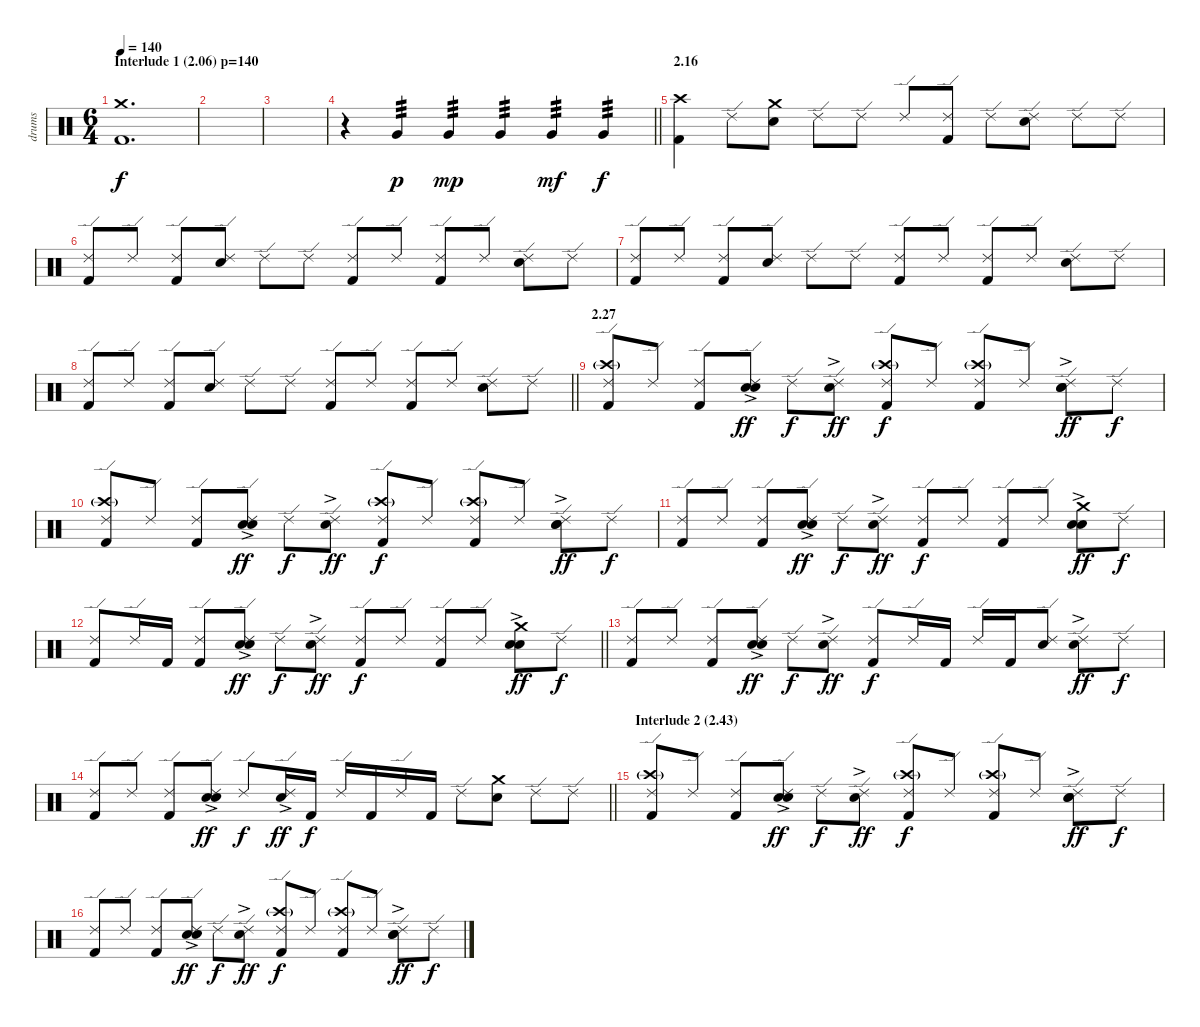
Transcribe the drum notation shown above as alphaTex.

\track ("drums" "drums") {instrument percussion}
\staff {score}
\articulation defaults
\ts (6 4)
\section ("" "Interlude 1 (2.06) p=140")
\tempo 140
\clef neutral
\ks c
("Crash medium (hit)" "Kick (hit) 2").1{d dy f} |
|
|
\barLineRight lightlight
r.4 "Very Low Tom (hit)".4{tp 3 dy p} "Very Low Tom (hit)".4{tp 3 dy mp} "Very Low Tom (hit)".4{tp 3} "Very Low Tom (hit)".4{tp 3 dy mf} "Very Low Tom (hit)".4{tp 3 dy f} |
\section ("" "2.16")
("Crash high (hit)" "Kick (hit) 2").4 "Ride (edge) 2".8 ("Crash medium (hit)" "Electric Snare (hit)").8 "Ride (edge) 2".8 "Ride (edge) 2".8 "Ride (edge) 2".8 ("Ride (edge) 2" "Kick (hit) 2").8 "Ride (edge) 2".8 ("Ride (edge) 2" "Electric Snare (hit)").8 "Ride (edge) 2".8 "Ride (edge) 2".8 |
("Ride (edge) 2" "Kick (hit) 2").8 "Ride (edge) 2".8 ("Ride (edge) 2" "Kick (hit) 2").8 ("Ride (edge) 2" "Electric Snare (hit)").8 "Ride (edge) 2".8 "Ride (edge) 2".8 ("Ride (edge) 2" "Kick (hit) 2").8 "Ride (edge) 2".8 ("Ride (edge) 2" "Kick (hit) 2").8 "Ride (edge) 2".8 ("Ride (edge) 2" "Electric Snare (hit)").8 "Ride (edge) 2".8 |
("Ride (edge) 2" "Kick (hit) 2").8 "Ride (edge) 2".8 ("Ride (edge) 2" "Kick (hit) 2").8 ("Ride (edge) 2" "Electric Snare (hit)").8 "Ride (edge) 2".8 "Ride (edge) 2".8 ("Ride (edge) 2" "Kick (hit) 2").8 "Ride (edge) 2".8 ("Ride (edge) 2" "Kick (hit) 2").8 "Ride (edge) 2".8 ("Ride (edge) 2" "Electric Snare (hit)").8 "Ride (edge) 2".8 |
\barLineRight lightlight
("Ride (edge) 2" "Kick (hit) 2").8 "Ride (edge) 2".8 ("Ride (edge) 2" "Kick (hit) 2").8 ("Ride (edge) 2" "Electric Snare (hit)").8 "Ride (edge) 2".8 "Ride (edge) 2".8 ("Ride (edge) 2" "Kick (hit) 2").8 "Ride (edge) 2".8 ("Ride (edge) 2" "Kick (hit) 2").8 "Ride (edge) 2".8 ("Ride (edge) 2" "Electric Snare (hit)").8 "Ride (edge) 2".8 |
\section ("" "2.27")
("Ride (edge) 2" "Crash high (hit)"{g} "Kick (hit) 2").8 "Ride (edge) 2".8 ("Ride (edge) 2" "Kick (hit) 2").8 ("Ride (edge) 2" "Hand Clap (hit)"{ac} "Electric Snare (hit)").8{dy ff} "Ride (edge) 2".8{dy f} ("Ride (edge) 2" "Hand Clap (hit)"{ac}).8{dy ff} ("Ride (edge) 2" "Crash high (hit)"{g} "Kick (hit) 2").8{dy f} "Ride (edge) 2".8 ("Ride (edge) 2" "Crash high (hit)"{g} "Kick (hit) 2").8 "Ride (edge) 2".8 ("Ride (edge) 2" "Hand Clap (hit)"{ac} "Electric Snare (hit)").8{dy ff} "Ride (edge) 2".8{dy f} |
("Ride (edge) 2" "Crash high (hit)"{g} "Kick (hit) 2").8 "Ride (edge) 2".8 ("Ride (edge) 2" "Kick (hit) 2").8 ("Ride (edge) 2" "Hand Clap (hit)"{ac} "Electric Snare (hit)").8{dy ff} "Ride (edge) 2".8{dy f} ("Ride (edge) 2" "Hand Clap (hit)"{ac}).8{dy ff} ("Ride (edge) 2" "Crash high (hit)"{g} "Kick (hit) 2").8{dy f} "Ride (edge) 2".8 ("Ride (edge) 2" "Crash high (hit)"{g} "Kick (hit) 2").8 "Ride (edge) 2".8 ("Ride (edge) 2" "Hand Clap (hit)"{ac} "Electric Snare (hit)").8{dy ff} "Ride (edge) 2".8{dy f} |
("Ride (edge) 2" "Kick (hit) 2").8 "Ride (edge) 2".8 ("Ride (edge) 2" "Kick (hit) 2").8 ("Ride (edge) 2" "Hand Clap (hit)"{ac} "Electric Snare (hit)").8{dy ff} "Ride (edge) 2".8{dy f} ("Ride (edge) 2" "Hand Clap (hit)"{ac}).8{dy ff} ("Ride (edge) 2" "Kick (hit) 2").8{dy f} "Ride (edge) 2".8 ("Ride (edge) 2" "Kick (hit) 2").8 "Ride (edge) 2".8 ("Hand Clap (hit)"{ac} "Crash medium (hit)" "Electric Snare (hit)").8{dy ff} "Ride (edge) 2".8{dy f} |
\barLineRight lightlight
("Ride (edge) 2" "Kick (hit) 2").8 "Ride (edge) 2".16 "Kick (hit) 2".16 ("Ride (edge) 2" "Kick (hit) 2").8 ("Ride (edge) 2" "Hand Clap (hit)"{ac} "Electric Snare (hit)").8{dy ff} "Ride (edge) 2".8{dy f} ("Ride (edge) 2" "Hand Clap (hit)"{ac}).8{dy ff} ("Ride (edge) 2" "Kick (hit) 2").8{dy f} "Ride (edge) 2".8 ("Ride (edge) 2" "Kick (hit) 2").8 "Ride (edge) 2".8 ("Hand Clap (hit)"{ac} "Crash medium (hit)" "Electric Snare (hit)").8{dy ff} "Ride (edge) 2".8{dy f} |
("Ride (edge) 2" "Kick (hit) 2").8 "Ride (edge) 2".8 ("Ride (edge) 2" "Kick (hit) 2").8 ("Ride (edge) 2" "Hand Clap (hit)"{ac} "Electric Snare (hit)").8{dy ff} "Ride (edge) 2".8{dy f} ("Ride (edge) 2" "Hand Clap (hit)"{ac}).8{dy ff} ("Ride (edge) 2" "Kick (hit) 2").8{dy f} "Ride (edge) 2".16 "Kick (hit) 2".16 "Ride (edge) 2".16 "Kick (hit) 2".16 ("Ride (edge) 2" "Electric Snare (hit)").8 ("Ride (edge) 2" "Hand Clap (hit)"{ac}).8{dy ff} "Ride (edge) 2".8{dy f} |
\barLineRight lightlight
("Ride (edge) 2" "Kick (hit) 2").8 "Ride (edge) 2".8 ("Ride (edge) 2" "Kick (hit) 2").8 ("Ride (edge) 2" "Hand Clap (hit)"{ac} "Electric Snare (hit)").8{dy ff} "Ride (edge) 2".8{dy f} ("Ride (edge) 2" "Hand Clap (hit)"{ac}).16{dy ff} "Kick (hit) 2".16{dy f} "Ride (edge) 2".16 "Kick (hit) 2".16 "Ride (edge) 2".16 "Kick (hit) 2".16 "Ride (edge) 2".8 ("Crash medium (hit)" "Electric Snare (hit)").8 "Ride (edge) 2".8 "Ride (edge) 2".8 |
\section ("" "Interlude 2 (2.43)")
("Ride (edge) 2" "Crash high (hit)"{g} "Kick (hit) 2").8 "Ride (edge) 2".8 ("Ride (edge) 2" "Kick (hit) 2").8 ("Ride (edge) 2" "Hand Clap (hit)"{ac} "Electric Snare (hit)").8{dy ff} "Ride (edge) 2".8{dy f} ("Ride (edge) 2" "Hand Clap (hit)"{ac}).8{dy ff} ("Ride (edge) 2" "Crash high (hit)"{g} "Kick (hit) 2").8{dy f} "Ride (edge) 2".8 ("Ride (edge) 2" "Crash high (hit)"{g} "Kick (hit) 2").8 "Ride (edge) 2".8 ("Ride (edge) 2" "Hand Clap (hit)"{ac} "Electric Snare (hit)").8{dy ff} "Ride (edge) 2".8{dy f} |
("Ride (edge) 2" "Kick (hit) 2").8 "Ride (edge) 2".8 ("Ride (edge) 2" "Kick (hit) 2").8 ("Ride (edge) 2" "Hand Clap (hit)"{ac} "Electric Snare (hit)").8{dy ff} "Ride (edge) 2".8{dy f} ("Ride (edge) 2" "Hand Clap (hit)"{ac}).8{dy ff} ("Ride (edge) 2" "Crash high (hit)"{g} "Kick (hit) 2").8{dy f} "Ride (edge) 2".8 ("Ride (edge) 2" "Crash high (hit)"{g} "Kick (hit) 2").8 "Ride (edge) 2".8 ("Ride (edge) 2" "Hand Clap (hit)"{ac} "Electric Snare (hit)").8{dy ff} "Ride (edge) 2".8{dy f}
